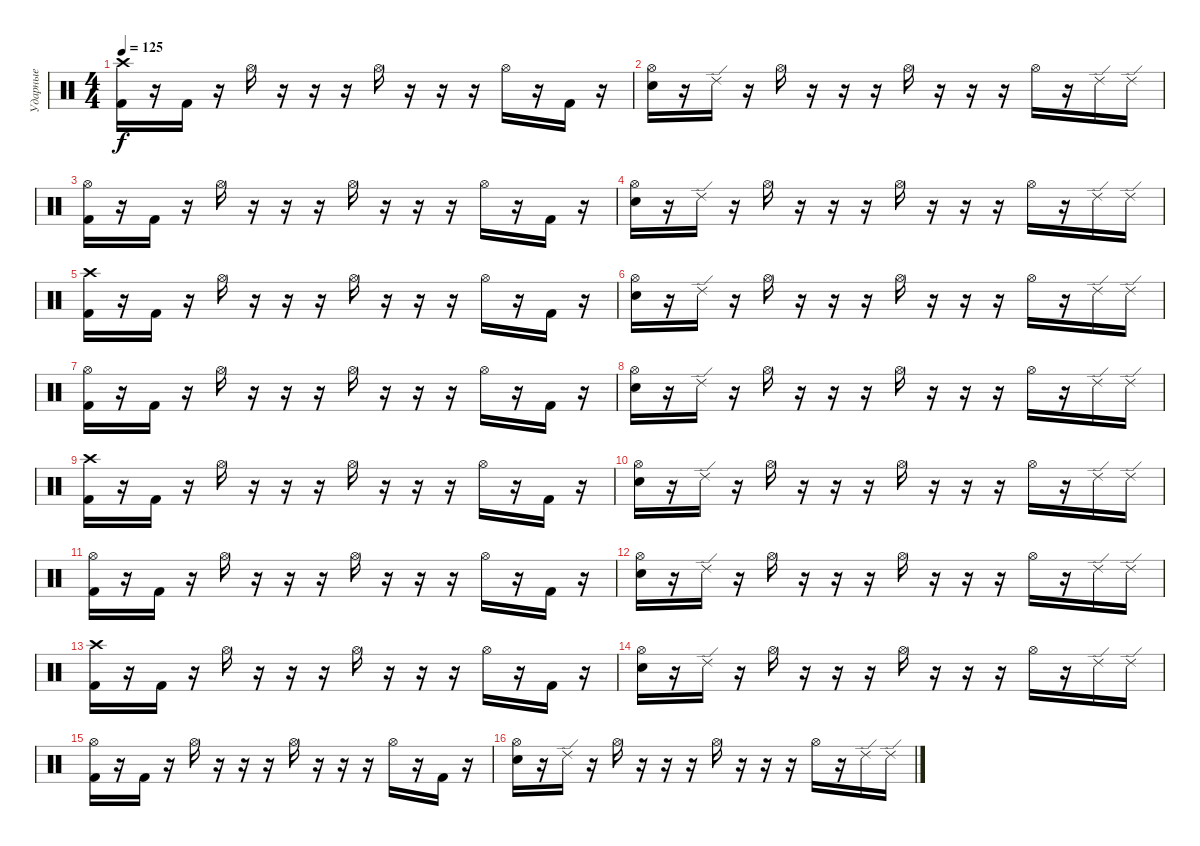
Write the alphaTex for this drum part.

\track ("Ударные" "Ударные") {instrument percussion}
\staff {score}
\articulation defaults
\ts (4 4)
\tempo 125
\clef neutral
\ks c
("Crash high (hit)" "Kick (hit) 2").16{dy f} r.16 "Kick (hit) 2".16 r.16 "Hi-Hat (open)".16 r.16 r.16 r.16 "Hi-Hat (open)".16 r.16 r.16 r.16 "Hi-Hat (open)".16 r.16 "Kick (hit) 2".16 r.16 |
("Hi-Hat (open)" "Electric Snare (hit)").16 r.16 "Ride (edge) 2".16 r.16 "Hi-Hat (open)".16 r.16 r.16 r.16 "Hi-Hat (open)".16 r.16 r.16 r.16 "Hi-Hat (open)".16 r.16 "Ride (edge) 2".16 "Ride (edge) 2".16 |
("Hi-Hat (open)" "Kick (hit) 2").16 r.16 "Kick (hit) 2".16 r.16 "Hi-Hat (open)".16 r.16 r.16 r.16 "Hi-Hat (open)".16 r.16 r.16 r.16 "Hi-Hat (open)".16 r.16 "Kick (hit) 2".16 r.16 |
("Hi-Hat (open)" "Electric Snare (hit)").16 r.16 "Ride (edge) 2".16 r.16 "Hi-Hat (open)".16 r.16 r.16 r.16 "Hi-Hat (open)".16 r.16 r.16 r.16 "Hi-Hat (open)".16 r.16 "Ride (edge) 2".16 "Ride (edge) 2".16 |
("Crash high (hit)" "Kick (hit) 2").16 r.16 "Kick (hit) 2".16 r.16 "Hi-Hat (open)".16 r.16 r.16 r.16 "Hi-Hat (open)".16 r.16 r.16 r.16 "Hi-Hat (open)".16 r.16 "Kick (hit) 2".16 r.16 |
("Hi-Hat (open)" "Electric Snare (hit)").16 r.16 "Ride (edge) 2".16 r.16 "Hi-Hat (open)".16 r.16 r.16 r.16 "Hi-Hat (open)".16 r.16 r.16 r.16 "Hi-Hat (open)".16 r.16 "Ride (edge) 2".16 "Ride (edge) 2".16 |
("Hi-Hat (open)" "Kick (hit) 2").16 r.16 "Kick (hit) 2".16 r.16 "Hi-Hat (open)".16 r.16 r.16 r.16 "Hi-Hat (open)".16 r.16 r.16 r.16 "Hi-Hat (open)".16 r.16 "Kick (hit) 2".16 r.16 |
("Hi-Hat (open)" "Electric Snare (hit)").16 r.16 "Ride (edge) 2".16 r.16 "Hi-Hat (open)".16 r.16 r.16 r.16 "Hi-Hat (open)".16 r.16 r.16 r.16 "Hi-Hat (open)".16 r.16 "Ride (edge) 2".16 "Ride (edge) 2".16 |
("Crash high (hit)" "Kick (hit) 2").16 r.16 "Kick (hit) 2".16 r.16 "Hi-Hat (open)".16 r.16 r.16 r.16 "Hi-Hat (open)".16 r.16 r.16 r.16 "Hi-Hat (open)".16 r.16 "Kick (hit) 2".16 r.16 |
("Hi-Hat (open)" "Electric Snare (hit)").16 r.16 "Ride (edge) 2".16 r.16 "Hi-Hat (open)".16 r.16 r.16 r.16 "Hi-Hat (open)".16 r.16 r.16 r.16 "Hi-Hat (open)".16 r.16 "Ride (edge) 2".16 "Ride (edge) 2".16 |
("Hi-Hat (open)" "Kick (hit) 2").16 r.16 "Kick (hit) 2".16 r.16 "Hi-Hat (open)".16 r.16 r.16 r.16 "Hi-Hat (open)".16 r.16 r.16 r.16 "Hi-Hat (open)".16 r.16 "Kick (hit) 2".16 r.16 |
("Hi-Hat (open)" "Electric Snare (hit)").16 r.16 "Ride (edge) 2".16 r.16 "Hi-Hat (open)".16 r.16 r.16 r.16 "Hi-Hat (open)".16 r.16 r.16 r.16 "Hi-Hat (open)".16 r.16 "Ride (edge) 2".16 "Ride (edge) 2".16 |
("Crash high (hit)" "Kick (hit) 2").16 r.16 "Kick (hit) 2".16 r.16 "Hi-Hat (open)".16 r.16 r.16 r.16 "Hi-Hat (open)".16 r.16 r.16 r.16 "Hi-Hat (open)".16 r.16 "Kick (hit) 2".16 r.16 |
("Hi-Hat (open)" "Electric Snare (hit)").16 r.16 "Ride (edge) 2".16 r.16 "Hi-Hat (open)".16 r.16 r.16 r.16 "Hi-Hat (open)".16 r.16 r.16 r.16 "Hi-Hat (open)".16 r.16 "Ride (edge) 2".16 "Ride (edge) 2".16 |
("Hi-Hat (open)" "Kick (hit) 2").16 r.16 "Kick (hit) 2".16 r.16 "Hi-Hat (open)".16 r.16 r.16 r.16 "Hi-Hat (open)".16 r.16 r.16 r.16 "Hi-Hat (open)".16 r.16 "Kick (hit) 2".16 r.16 |
("Hi-Hat (open)" "Electric Snare (hit)").16 r.16 "Ride (edge) 2".16 r.16 "Hi-Hat (open)".16 r.16 r.16 r.16 "Hi-Hat (open)".16 r.16 r.16 r.16 "Hi-Hat (open)".16 r.16 "Ride (edge) 2".16 "Ride (edge) 2".16
